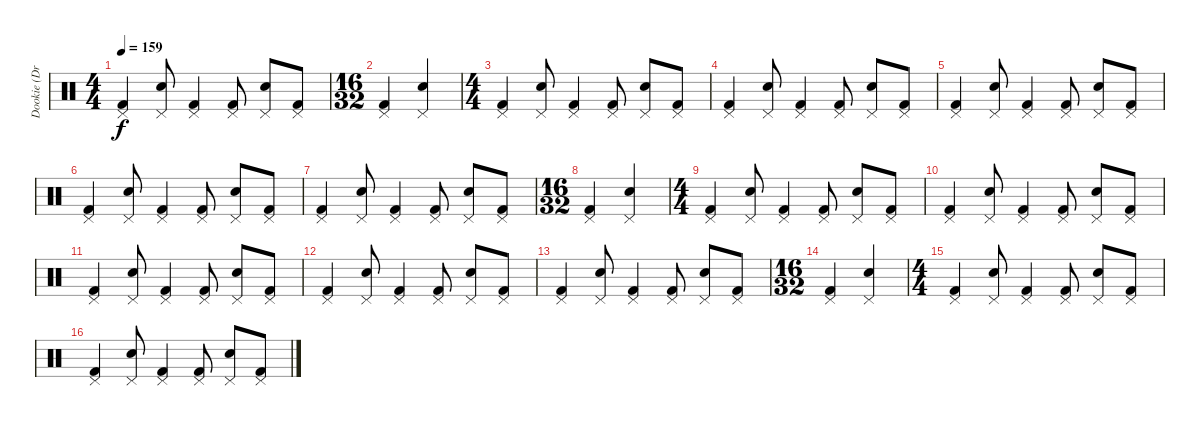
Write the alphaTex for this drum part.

\track ("Dookie (Drums)" "Dookie (Dr") {instrument percussion}
\staff {score}
\articulation defaults
\ts (4 4)
\tempo 159
\clef neutral
\ks c
("Kick (hit) 2" "Pedal Hi-Hat (hit)").4{dy f} ("Electric Snare (hit)" "Pedal Hi-Hat (hit)").8 ("Kick (hit) 2" "Pedal Hi-Hat (hit)").4 ("Kick (hit) 2" "Pedal Hi-Hat (hit)").8 ("Electric Snare (hit)" "Pedal Hi-Hat (hit)").8 ("Kick (hit) 2" "Pedal Hi-Hat (hit)").8 |
\ts (16 32)
("Kick (hit) 2" "Pedal Hi-Hat (hit)").4 ("Electric Snare (hit)" "Pedal Hi-Hat (hit)").4 |
\ts (4 4)
("Kick (hit) 2" "Pedal Hi-Hat (hit)").4 ("Electric Snare (hit)" "Pedal Hi-Hat (hit)").8 ("Kick (hit) 2" "Pedal Hi-Hat (hit)").4 ("Kick (hit) 2" "Pedal Hi-Hat (hit)").8 ("Electric Snare (hit)" "Pedal Hi-Hat (hit)").8 ("Kick (hit) 2" "Pedal Hi-Hat (hit)").8 |
("Kick (hit) 2" "Pedal Hi-Hat (hit)").4 ("Electric Snare (hit)" "Pedal Hi-Hat (hit)").8 ("Kick (hit) 2" "Pedal Hi-Hat (hit)").4 ("Kick (hit) 2" "Pedal Hi-Hat (hit)").8 ("Electric Snare (hit)" "Pedal Hi-Hat (hit)").8 ("Kick (hit) 2" "Pedal Hi-Hat (hit)").8 |
("Kick (hit) 2" "Pedal Hi-Hat (hit)").4 ("Electric Snare (hit)" "Pedal Hi-Hat (hit)").8 ("Kick (hit) 2" "Pedal Hi-Hat (hit)").4 ("Kick (hit) 2" "Pedal Hi-Hat (hit)").8 ("Electric Snare (hit)" "Pedal Hi-Hat (hit)").8 ("Kick (hit) 2" "Pedal Hi-Hat (hit)").8 |
("Kick (hit) 2" "Pedal Hi-Hat (hit)").4 ("Electric Snare (hit)" "Pedal Hi-Hat (hit)").8 ("Kick (hit) 2" "Pedal Hi-Hat (hit)").4 ("Kick (hit) 2" "Pedal Hi-Hat (hit)").8 ("Electric Snare (hit)" "Pedal Hi-Hat (hit)").8 ("Kick (hit) 2" "Pedal Hi-Hat (hit)").8 |
("Kick (hit) 2" "Pedal Hi-Hat (hit)").4 ("Electric Snare (hit)" "Pedal Hi-Hat (hit)").8 ("Kick (hit) 2" "Pedal Hi-Hat (hit)").4 ("Kick (hit) 2" "Pedal Hi-Hat (hit)").8 ("Electric Snare (hit)" "Pedal Hi-Hat (hit)").8 ("Kick (hit) 2" "Pedal Hi-Hat (hit)").8 |
\ts (16 32)
("Kick (hit) 2" "Pedal Hi-Hat (hit)").4 ("Electric Snare (hit)" "Pedal Hi-Hat (hit)").4 |
\ts (4 4)
("Kick (hit) 2" "Pedal Hi-Hat (hit)").4 ("Electric Snare (hit)" "Pedal Hi-Hat (hit)").8 ("Kick (hit) 2" "Pedal Hi-Hat (hit)").4 ("Kick (hit) 2" "Pedal Hi-Hat (hit)").8 ("Electric Snare (hit)" "Pedal Hi-Hat (hit)").8 ("Kick (hit) 2" "Pedal Hi-Hat (hit)").8 |
("Kick (hit) 2" "Pedal Hi-Hat (hit)").4 ("Electric Snare (hit)" "Pedal Hi-Hat (hit)").8 ("Kick (hit) 2" "Pedal Hi-Hat (hit)").4 ("Kick (hit) 2" "Pedal Hi-Hat (hit)").8 ("Electric Snare (hit)" "Pedal Hi-Hat (hit)").8 ("Kick (hit) 2" "Pedal Hi-Hat (hit)").8 |
("Kick (hit) 2" "Pedal Hi-Hat (hit)").4 ("Electric Snare (hit)" "Pedal Hi-Hat (hit)").8 ("Kick (hit) 2" "Pedal Hi-Hat (hit)").4 ("Kick (hit) 2" "Pedal Hi-Hat (hit)").8 ("Electric Snare (hit)" "Pedal Hi-Hat (hit)").8 ("Kick (hit) 2" "Pedal Hi-Hat (hit)").8 |
("Kick (hit) 2" "Pedal Hi-Hat (hit)").4 ("Electric Snare (hit)" "Pedal Hi-Hat (hit)").8 ("Kick (hit) 2" "Pedal Hi-Hat (hit)").4 ("Kick (hit) 2" "Pedal Hi-Hat (hit)").8 ("Electric Snare (hit)" "Pedal Hi-Hat (hit)").8 ("Kick (hit) 2" "Pedal Hi-Hat (hit)").8 |
("Kick (hit) 2" "Pedal Hi-Hat (hit)").4 ("Electric Snare (hit)" "Pedal Hi-Hat (hit)").8 ("Kick (hit) 2" "Pedal Hi-Hat (hit)").4 ("Kick (hit) 2" "Pedal Hi-Hat (hit)").8 ("Electric Snare (hit)" "Pedal Hi-Hat (hit)").8 ("Kick (hit) 2" "Pedal Hi-Hat (hit)").8 |
\ts (16 32)
("Kick (hit) 2" "Pedal Hi-Hat (hit)").4 ("Electric Snare (hit)" "Pedal Hi-Hat (hit)").4 |
\ts (4 4)
("Kick (hit) 2" "Pedal Hi-Hat (hit)").4 ("Electric Snare (hit)" "Pedal Hi-Hat (hit)").8 ("Kick (hit) 2" "Pedal Hi-Hat (hit)").4 ("Kick (hit) 2" "Pedal Hi-Hat (hit)").8 ("Electric Snare (hit)" "Pedal Hi-Hat (hit)").8 ("Kick (hit) 2" "Pedal Hi-Hat (hit)").8 |
("Kick (hit) 2" "Pedal Hi-Hat (hit)").4 ("Electric Snare (hit)" "Pedal Hi-Hat (hit)").8 ("Kick (hit) 2" "Pedal Hi-Hat (hit)").4 ("Kick (hit) 2" "Pedal Hi-Hat (hit)").8 ("Electric Snare (hit)" "Pedal Hi-Hat (hit)").8 ("Kick (hit) 2" "Pedal Hi-Hat (hit)").8
